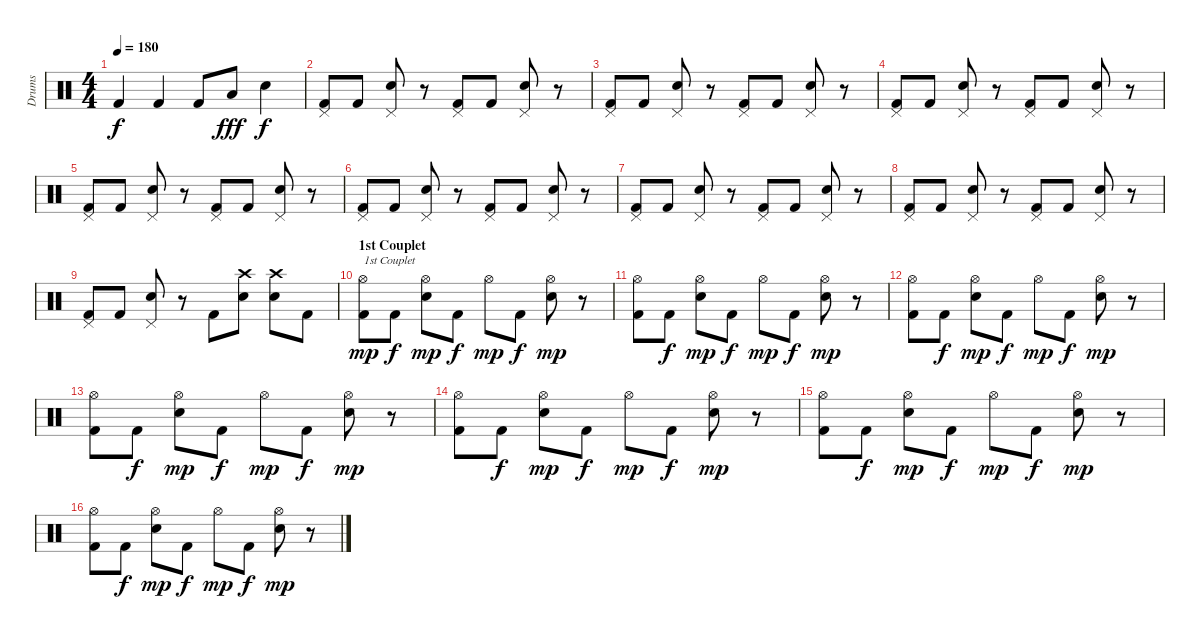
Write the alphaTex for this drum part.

\track ("Drums" "Drums") {instrument percussion}
\staff {score}
\articulation defaults
\ts (4 4)
\tempo 180
\clef neutral
\ks c "Kick (hit) 2".4{dy f} "Kick (hit) 2".4 "Kick (hit) 2".8 "Low Tom (hit)".8{dy fff} "Electric Snare (hit)".4{dy f}
|
("Pedal Hi-Hat (hit)" "Kick (hit) 2").8 "Kick (hit) 2".8 ("Pedal Hi-Hat (hit)" "Electric Snare (hit)").8 r.8 ("Pedal Hi-Hat (hit)" "Kick (hit) 2").8 "Kick (hit) 2".8 ("Pedal Hi-Hat (hit)" "Electric Snare (hit)").8 r.8 |
("Pedal Hi-Hat (hit)" "Kick (hit) 2").8 "Kick (hit) 2".8 ("Pedal Hi-Hat (hit)" "Electric Snare (hit)").8 r.8 ("Pedal Hi-Hat (hit)" "Kick (hit) 2").8 "Kick (hit) 2".8 ("Pedal Hi-Hat (hit)" "Electric Snare (hit)").8 r.8 |
("Pedal Hi-Hat (hit)" "Kick (hit) 2").8 "Kick (hit) 2".8 ("Pedal Hi-Hat (hit)" "Electric Snare (hit)").8 r.8 ("Pedal Hi-Hat (hit)" "Kick (hit) 2").8 "Kick (hit) 2".8 ("Pedal Hi-Hat (hit)" "Electric Snare (hit)").8 r.8 |
("Pedal Hi-Hat (hit)" "Kick (hit) 2").8 "Kick (hit) 2".8 ("Pedal Hi-Hat (hit)" "Electric Snare (hit)").8 r.8 ("Pedal Hi-Hat (hit)" "Kick (hit) 2").8 "Kick (hit) 2".8 ("Pedal Hi-Hat (hit)" "Electric Snare (hit)").8 r.8 |
("Pedal Hi-Hat (hit)" "Kick (hit) 2").8 "Kick (hit) 2".8 ("Pedal Hi-Hat (hit)" "Electric Snare (hit)").8 r.8 ("Pedal Hi-Hat (hit)" "Kick (hit) 2").8 "Kick (hit) 2".8 ("Pedal Hi-Hat (hit)" "Electric Snare (hit)").8 r.8 |
("Pedal Hi-Hat (hit)" "Kick (hit) 2").8 "Kick (hit) 2".8 ("Pedal Hi-Hat (hit)" "Electric Snare (hit)").8 r.8 ("Pedal Hi-Hat (hit)" "Kick (hit) 2").8 "Kick (hit) 2".8 ("Pedal Hi-Hat (hit)" "Electric Snare (hit)").8 r.8 |
("Pedal Hi-Hat (hit)" "Kick (hit) 2").8 "Kick (hit) 2".8 ("Pedal Hi-Hat (hit)" "Electric Snare (hit)").8 r.8 ("Pedal Hi-Hat (hit)" "Kick (hit) 2").8 "Kick (hit) 2".8 ("Pedal Hi-Hat (hit)" "Electric Snare (hit)").8 r.8 |
("Pedal Hi-Hat (hit)" "Kick (hit) 2").8 "Kick (hit) 2".8 ("Pedal Hi-Hat (hit)" "Electric Snare (hit)").8 r.8 "Kick (hit) 2".8 ("Crash high (hit)" "Electric Snare (hit)").8 ("Crash high (hit)" "Electric Snare (hit)").8 "Kick (hit) 2".8 |
\section ("" "1st Couplet")
("Hi-Hat (open)" "Kick (hit) 2").8{txt "1st Couplet " dy mp} "Kick (hit) 2".8{dy f} ("Hi-Hat (open)" "Electric Snare (hit)").8{dy mp} "Kick (hit) 2".8{dy f} "Hi-Hat (open)".8{dy mp} "Kick (hit) 2".8{dy f} ("Hi-Hat (open)" "Electric Snare (hit)").8{dy mp} r.8 |
("Hi-Hat (open)" "Kick (hit) 2").8 "Kick (hit) 2".8{dy f} ("Hi-Hat (open)" "Electric Snare (hit)").8{dy mp} "Kick (hit) 2".8{dy f} "Hi-Hat (open)".8{dy mp} "Kick (hit) 2".8{dy f} ("Hi-Hat (open)" "Electric Snare (hit)").8{dy mp} r.8 |
("Hi-Hat (open)" "Kick (hit) 2").8 "Kick (hit) 2".8{dy f} ("Hi-Hat (open)" "Electric Snare (hit)").8{dy mp} "Kick (hit) 2".8{dy f} "Hi-Hat (open)".8{dy mp} "Kick (hit) 2".8{dy f} ("Hi-Hat (open)" "Electric Snare (hit)").8{dy mp} r.8 |
("Hi-Hat (open)" "Kick (hit) 2").8 "Kick (hit) 2".8{dy f} ("Hi-Hat (open)" "Electric Snare (hit)").8{dy mp} "Kick (hit) 2".8{dy f} "Hi-Hat (open)".8{dy mp} "Kick (hit) 2".8{dy f} ("Hi-Hat (open)" "Electric Snare (hit)").8{dy mp} r.8 |
("Hi-Hat (open)" "Kick (hit) 2").8 "Kick (hit) 2".8{dy f} ("Hi-Hat (open)" "Electric Snare (hit)").8{dy mp} "Kick (hit) 2".8{dy f} "Hi-Hat (open)".8{dy mp} "Kick (hit) 2".8{dy f} ("Hi-Hat (open)" "Electric Snare (hit)").8{dy mp} r.8 |
("Hi-Hat (open)" "Kick (hit) 2").8 "Kick (hit) 2".8{dy f} ("Hi-Hat (open)" "Electric Snare (hit)").8{dy mp} "Kick (hit) 2".8{dy f} "Hi-Hat (open)".8{dy mp} "Kick (hit) 2".8{dy f} ("Hi-Hat (open)" "Electric Snare (hit)").8{dy mp} r.8 |
("Hi-Hat (open)" "Kick (hit) 2").8 "Kick (hit) 2".8{dy f} ("Hi-Hat (open)" "Electric Snare (hit)").8{dy mp} "Kick (hit) 2".8{dy f} "Hi-Hat (open)".8{dy mp} "Kick (hit) 2".8{dy f} ("Hi-Hat (open)" "Electric Snare (hit)").8{dy mp} r.8
